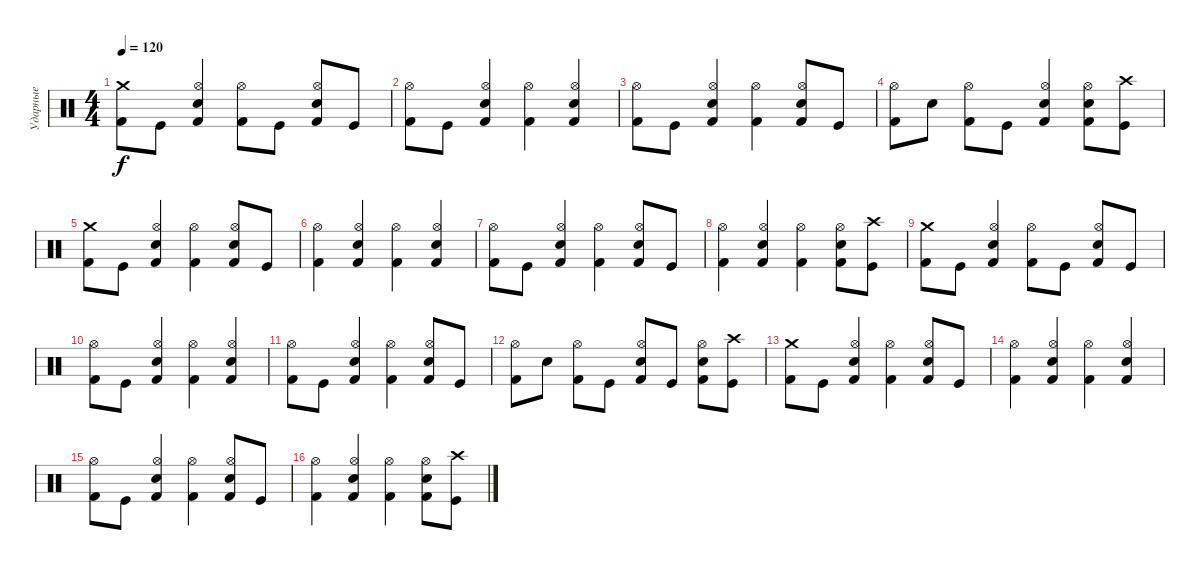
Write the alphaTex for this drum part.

\track ("Ударные" "Ударные") {instrument percussion}
\staff {score}
\articulation defaults
\ts (4 4)
\tempo 120
\clef neutral
\ks c
("Crash medium (hit)" "Kick (hit) 2").8{dy f} "Kick (hit)".8 ("Hi-Hat (open)" "Electric Snare (hit)" "Kick (hit) 2").4 ("Hi-Hat (open)" "Kick (hit) 2").8 "Kick (hit)".8 ("Hi-Hat (open)" "Electric Snare (hit)" "Kick (hit) 2").8 "Kick (hit)".8 |
("Hi-Hat (open)" "Kick (hit) 2").8 "Kick (hit)".8 ("Hi-Hat (open)" "Electric Snare (hit)" "Kick (hit) 2").4 ("Hi-Hat (open)" "Kick (hit) 2").4 ("Hi-Hat (open)" "Electric Snare (hit)" "Kick (hit) 2").4 |
("Hi-Hat (open)" "Kick (hit) 2").8 "Kick (hit)".8 ("Hi-Hat (open)" "Electric Snare (hit)" "Kick (hit) 2").4 ("Hi-Hat (open)" "Kick (hit) 2").4 ("Hi-Hat (open)" "Electric Snare (hit)" "Kick (hit) 2").8 "Kick (hit)".8 |
("Hi-Hat (open)" "Kick (hit) 2").8 "Electric Snare (hit)".8 ("Hi-Hat (open)" "Kick (hit) 2").8 "Kick (hit)".8 ("Hi-Hat (open)" "Electric Snare (hit)" "Kick (hit) 2").4 ("Hi-Hat (open)" "Electric Snare (hit)" "Kick (hit) 2").8 ("Crash high (hit)" "Kick (hit)").8 |
("Crash medium (hit)" "Kick (hit) 2").8 "Kick (hit)".8 ("Hi-Hat (open)" "Electric Snare (hit)" "Kick (hit) 2").4 ("Hi-Hat (open)" "Kick (hit) 2").4 ("Hi-Hat (open)" "Electric Snare (hit)" "Kick (hit) 2").8 "Kick (hit)".8 |
("Hi-Hat (open)" "Kick (hit) 2").4 ("Hi-Hat (open)" "Electric Snare (hit)" "Kick (hit) 2").4 ("Hi-Hat (open)" "Kick (hit) 2").4 ("Hi-Hat (open)" "Electric Snare (hit)" "Kick (hit) 2").4 |
("Hi-Hat (open)" "Kick (hit) 2").8 "Kick (hit)".8 ("Hi-Hat (open)" "Electric Snare (hit)" "Kick (hit) 2").4 ("Hi-Hat (open)" "Kick (hit) 2").4 ("Hi-Hat (open)" "Electric Snare (hit)" "Kick (hit) 2").8 "Kick (hit)".8 |
("Hi-Hat (open)" "Kick (hit) 2").4 ("Hi-Hat (open)" "Electric Snare (hit)" "Kick (hit) 2").4 ("Hi-Hat (open)" "Kick (hit) 2").4 ("Hi-Hat (open)" "Electric Snare (hit)" "Kick (hit) 2").8 ("Crash high (hit)" "Kick (hit)").8 |
("Crash medium (hit)" "Kick (hit) 2").8 "Kick (hit)".8 ("Hi-Hat (open)" "Electric Snare (hit)" "Kick (hit) 2").4 ("Hi-Hat (open)" "Kick (hit) 2").8 "Kick (hit)".8 ("Hi-Hat (open)" "Electric Snare (hit)" "Kick (hit) 2").8 "Kick (hit)".8 |
("Hi-Hat (open)" "Kick (hit) 2").8 "Kick (hit)".8 ("Hi-Hat (open)" "Electric Snare (hit)" "Kick (hit) 2").4 ("Hi-Hat (open)" "Kick (hit) 2").4 ("Hi-Hat (open)" "Electric Snare (hit)" "Kick (hit) 2").4 |
("Hi-Hat (open)" "Kick (hit) 2").8 "Kick (hit)".8 ("Hi-Hat (open)" "Electric Snare (hit)" "Kick (hit) 2").4 ("Hi-Hat (open)" "Kick (hit) 2").4 ("Hi-Hat (open)" "Electric Snare (hit)" "Kick (hit) 2").8 "Kick (hit)".8 |
("Hi-Hat (open)" "Kick (hit) 2").8 "Electric Snare (hit)".8 ("Hi-Hat (open)" "Kick (hit) 2").8 "Kick (hit)".8 ("Hi-Hat (open)" "Electric Snare (hit)" "Kick (hit) 2").8 "Kick (hit)".8 ("Hi-Hat (open)" "Electric Snare (hit)" "Kick (hit) 2").8 ("Crash high (hit)" "Kick (hit)").8 |
("Crash medium (hit)" "Kick (hit) 2").8 "Kick (hit)".8 ("Hi-Hat (open)" "Electric Snare (hit)" "Kick (hit) 2").4 ("Hi-Hat (open)" "Kick (hit) 2").4 ("Hi-Hat (open)" "Electric Snare (hit)" "Kick (hit) 2").8 "Kick (hit)".8 |
("Hi-Hat (open)" "Kick (hit) 2").4 ("Hi-Hat (open)" "Electric Snare (hit)" "Kick (hit) 2").4 ("Hi-Hat (open)" "Kick (hit) 2").4 ("Hi-Hat (open)" "Electric Snare (hit)" "Kick (hit) 2").4 |
("Hi-Hat (open)" "Kick (hit) 2").8 "Kick (hit)".8 ("Hi-Hat (open)" "Electric Snare (hit)" "Kick (hit) 2").4 ("Hi-Hat (open)" "Kick (hit) 2").4 ("Hi-Hat (open)" "Electric Snare (hit)" "Kick (hit) 2").8 "Kick (hit)".8 |
("Hi-Hat (open)" "Kick (hit) 2").4 ("Hi-Hat (open)" "Electric Snare (hit)" "Kick (hit) 2").4 ("Hi-Hat (open)" "Kick (hit) 2").4 ("Hi-Hat (open)" "Electric Snare (hit)" "Kick (hit) 2").8 ("Crash high (hit)" "Kick (hit)").8
